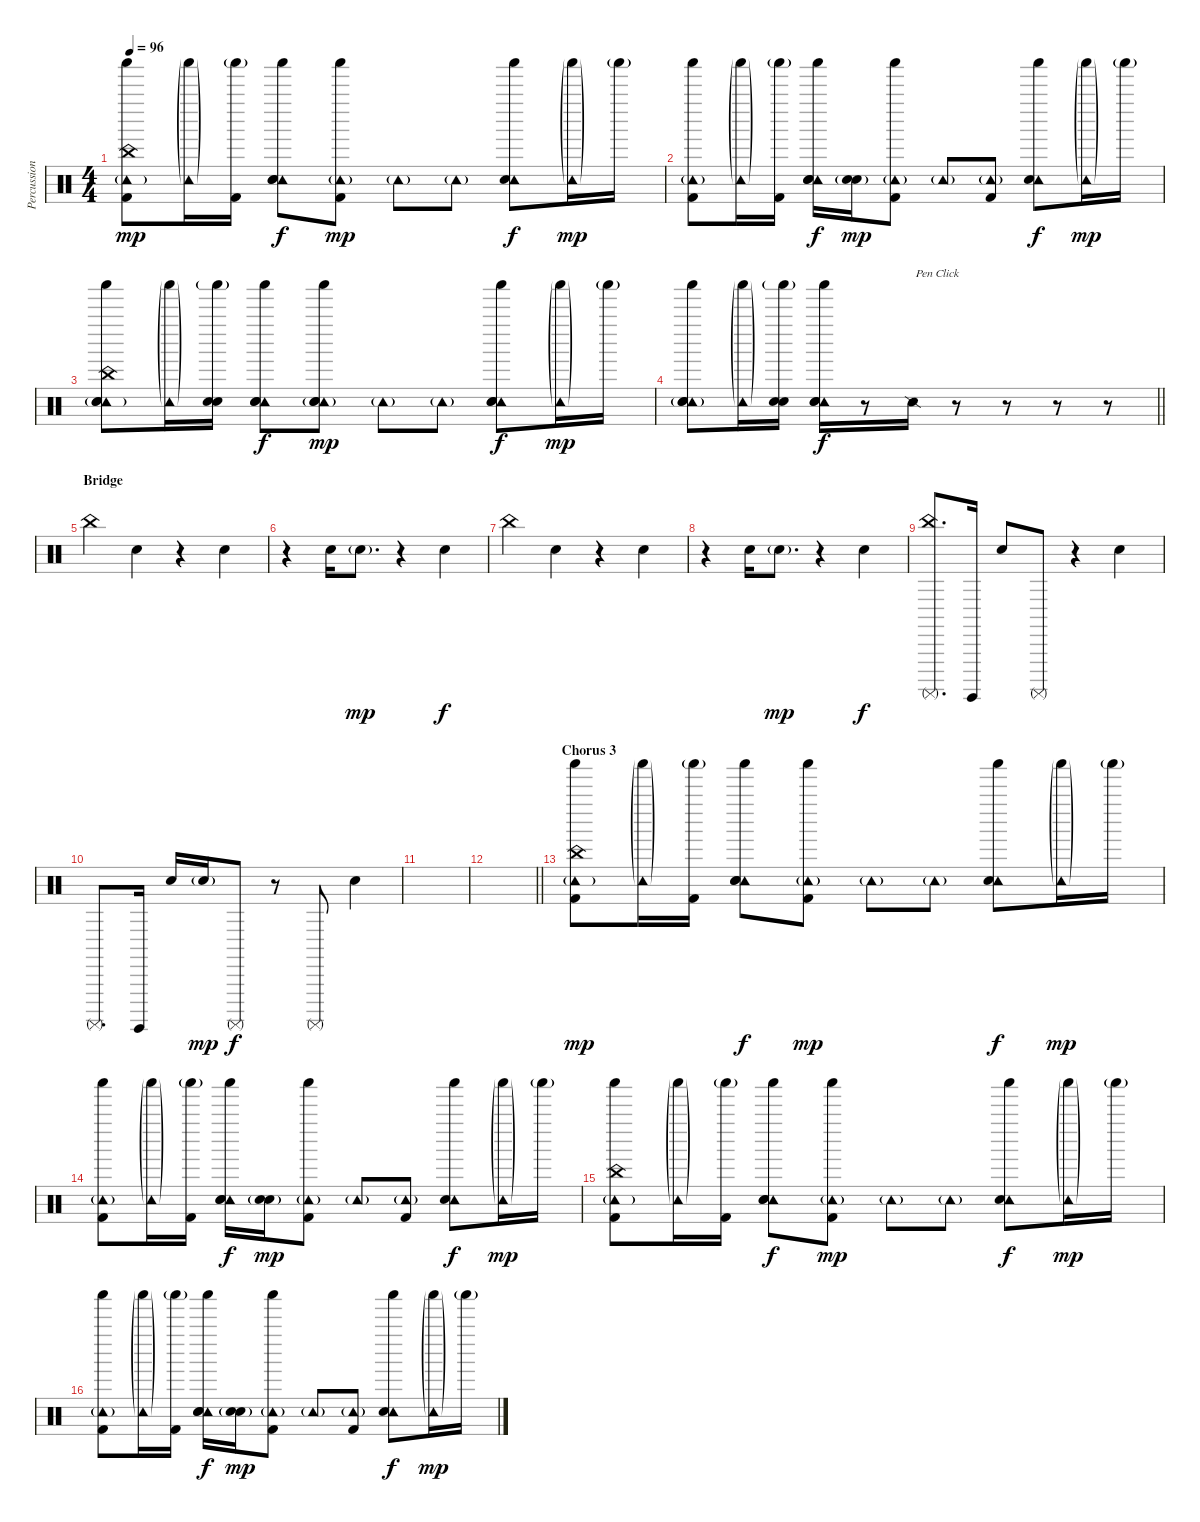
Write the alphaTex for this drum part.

\track ("Percussion" "Percussion") {instrument percussion}
\staff {score}
\articulation defaults
\ts (4 4)
\tempo 96
\clef neutral
\ks c
("China (hit)" "Shaker (hit)" "Tambourine (hit)"{g} "Kick (hit) 2").8{dy mp} ("Shaker (hit)"{g} "Tambourine (hit)"{g}).16 ("Shaker (hit)"{g} "Kick (hit) 2").16 ("Shaker (hit)" "Tambourine (hit)" "Hand Clap (hit)" "Electric Snare (hit)").8{dy f} ("Shaker (hit)" "Tambourine (hit)"{g} "Kick (hit) 2").8{dy mp} "Tambourine (hit)"{g}.8 "Tambourine (hit)"{g}.8 ("Shaker (hit)" "Tambourine (hit)" "Electric Snare (hit)").8{dy f} ("Shaker (hit)"{g} "Tambourine (hit)"{g}).16{dy mp} "Shaker (hit)"{g}.16 |
("Shaker (hit)" "Tambourine (hit)"{g} "Kick (hit) 2").8 ("Shaker (hit)"{g} "Tambourine (hit)"{g}).16 ("Shaker (hit)"{g} "Kick (hit) 2").16 ("Shaker (hit)" "Tambourine (hit)" "Hand Clap (hit)" "Electric Snare (hit)").16{dy f} ("Hand Clap (hit)"{g} "Electric Snare (hit)"{g}).16{dy mp} ("Shaker (hit)" "Tambourine (hit)"{g} "Kick (hit) 2").8 "Tambourine (hit)"{g}.8 ("Tambourine (hit)"{g} "Kick (hit) 2").8 ("Shaker (hit)" "Tambourine (hit)" "Electric Snare (hit)").8{dy f} ("Shaker (hit)"{g} "Tambourine (hit)"{g}).16{dy mp} "Shaker (hit)"{g}.16 |
("China (hit)" "Shaker (hit)" "Tambourine (hit)"{g} "Snare (hit) 2" "Electric Snare (hit)").8 ("Shaker (hit)"{g} "Tambourine (hit)"{g}).16 ("Shaker (hit)"{g} "Snare (hit) 2" "Electric Snare (hit)").16 ("Shaker (hit)" "Tambourine (hit)" "Hand Clap (hit)" "Electric Snare (hit)").8{dy f} ("Shaker (hit)" "Tambourine (hit)"{g} "Snare (hit) 2" "Electric Snare (hit)").8{dy mp} "Tambourine (hit)"{g}.8 "Tambourine (hit)"{g}.8 ("Shaker (hit)" "Tambourine (hit)" "Snare (hit) 2" "Electric Snare (hit)").8{dy f} ("Shaker (hit)"{g} "Tambourine (hit)"{g}).16{dy mp} "Shaker (hit)"{g}.16 |
\barLineRight lightlight
("Shaker (hit)" "Tambourine (hit)"{g} "Snare (hit) 2" "Electric Snare (hit)").8 ("Shaker (hit)"{g} "Tambourine (hit)"{g}).16 ("Shaker (hit)"{g} "Snare (hit) 2" "Electric Snare (hit)").16 ("Shaker (hit)" "Tambourine (hit)" "Hand Clap (hit)" "Electric Snare (hit)").16{dy f} r.8 "Snare (side stick) 2".16{txt "Pen Click"} r.8 r.8 r.8 r.8 |
\section ("" "Bridge")
"China (hit)".4 "Electric Snare (hit)".4 r.4 "Electric Snare (hit)".4 |
r.4 "Electric Snare (hit)".16 "Snare (hit) 2"{g}.8{d dy mp} r.4 "Electric Snare (hit)".4{dy f} |
"China (hit)".4 "Electric Snare (hit)".4 r.4 "Electric Snare (hit)".4 |
r.4 "Electric Snare (hit)".16 "Snare (hit) 2"{g}.8{d dy mp} r.4 "Electric Snare (hit)".4{dy f} |
("China (hit)" "Surdo (mute)").8{d} "Surdo (hit)".16 "Electric Snare (hit)".8 "Surdo (mute)".8 r.4 "Electric Snare (hit)".4 |
"Surdo (mute)".8{d} "Surdo (hit)".16 "Electric Snare (hit)".16 "Snare (hit) 2"{g}.16{dy mp} "Surdo (mute)".8{dy f} r.8 "Surdo (mute)".8 "Electric Snare (hit)".4 |
|
\barLineRight lightlight
|
\section ("" "Chorus 3")
("China (hit)" "Shaker (hit)" "Tambourine (hit)"{g} "Kick (hit) 2").8{dy mp} ("Shaker (hit)"{g} "Tambourine (hit)"{g}).16 ("Shaker (hit)"{g} "Kick (hit) 2").16 ("Shaker (hit)" "Tambourine (hit)" "Hand Clap (hit)" "Electric Snare (hit)").8{dy f} ("Shaker (hit)" "Tambourine (hit)"{g} "Kick (hit) 2").8{dy mp} "Tambourine (hit)"{g}.8 "Tambourine (hit)"{g}.8 ("Shaker (hit)" "Tambourine (hit)" "Electric Snare (hit)").8{dy f} ("Shaker (hit)"{g} "Tambourine (hit)"{g}).16{dy mp} "Shaker (hit)"{g}.16 |
("Shaker (hit)" "Tambourine (hit)"{g} "Kick (hit) 2").8 ("Shaker (hit)"{g} "Tambourine (hit)"{g}).16 ("Shaker (hit)"{g} "Kick (hit) 2").16 ("Shaker (hit)" "Tambourine (hit)" "Hand Clap (hit)" "Electric Snare (hit)").16{dy f} ("Hand Clap (hit)"{g} "Electric Snare (hit)"{g}).16{dy mp} ("Shaker (hit)" "Tambourine (hit)"{g} "Kick (hit) 2").8 "Tambourine (hit)"{g}.8 ("Tambourine (hit)"{g} "Kick (hit) 2").8 ("Shaker (hit)" "Tambourine (hit)" "Electric Snare (hit)").8{dy f} ("Shaker (hit)"{g} "Tambourine (hit)"{g}).16{dy mp} "Shaker (hit)"{g}.16 |
("China (hit)" "Shaker (hit)" "Tambourine (hit)"{g} "Kick (hit) 2").8 ("Shaker (hit)"{g} "Tambourine (hit)"{g}).16 ("Shaker (hit)"{g} "Kick (hit) 2").16 ("Shaker (hit)" "Tambourine (hit)" "Hand Clap (hit)" "Electric Snare (hit)").8{dy f} ("Shaker (hit)" "Tambourine (hit)"{g} "Kick (hit) 2").8{dy mp} "Tambourine (hit)"{g}.8 "Tambourine (hit)"{g}.8 ("Shaker (hit)" "Tambourine (hit)" "Electric Snare (hit)").8{dy f} ("Shaker (hit)"{g} "Tambourine (hit)"{g}).16{dy mp} "Shaker (hit)"{g}.16 |
("Shaker (hit)" "Tambourine (hit)"{g} "Kick (hit) 2").8 ("Shaker (hit)"{g} "Tambourine (hit)"{g}).16 ("Shaker (hit)"{g} "Kick (hit) 2").16 ("Shaker (hit)" "Tambourine (hit)" "Hand Clap (hit)" "Electric Snare (hit)").16{dy f} ("Hand Clap (hit)"{g} "Electric Snare (hit)"{g}).16{dy mp} ("Shaker (hit)" "Tambourine (hit)"{g} "Kick (hit) 2").8 "Tambourine (hit)"{g}.8 ("Tambourine (hit)"{g} "Kick (hit) 2").8 ("Shaker (hit)" "Tambourine (hit)" "Electric Snare (hit)").8{dy f} ("Shaker (hit)"{g} "Tambourine (hit)"{g}).16{dy mp} "Shaker (hit)"{g}.16
